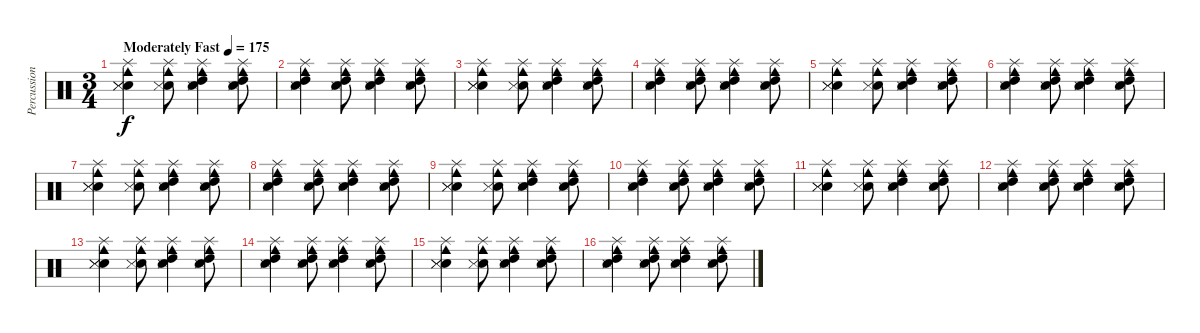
\track ("Percussion" "Percussion") {instrument percussion}
\staff {score}
\articulation defaults
\ts (3 4)
\tempo (175 "Moderately Fast")
\clef neutral
\ks c
("Snare (hit) 2" "Snare (side stick) 3" "Snare (side stick) 3" "Splash (hit)" "Cowbell medium (hit)").4{dy f} ("Snare (hit) 2" "Snare (side stick) 3" "Splash (hit)" "Cowbell medium (hit)").8 ("Snare (hit) 2" "Snare (side stick) 3" "High Tom (hit)" "Splash (hit)" "Cowbell medium (hit)").4 ("Snare (hit) 2" "Snare (side stick) 3" "High Tom (hit)" "Splash (hit)" "Cowbell medium (hit)").8 |
("Snare (hit) 2" "Snare (side stick) 3" "High Tom (hit)" "Splash (hit)" "Cowbell medium (hit)").4 ("Snare (hit) 2" "Snare (side stick) 3" "High Tom (hit)" "Splash (hit)" "Cowbell medium (hit)").8 ("Snare (hit) 2" "Snare (side stick) 3" "High Tom (hit)" "Splash (hit)" "Cowbell medium (hit)").4 ("Snare (hit) 2" "Snare (side stick) 3" "High Tom (hit)" "Splash (hit)" "Cowbell medium (hit)").8 |
("Snare (hit) 2" "Snare (side stick) 3" "Snare (side stick) 3" "Splash (hit)" "Cowbell medium (hit)").4 ("Snare (hit) 2" "Snare (side stick) 3" "Splash (hit)" "Cowbell medium (hit)").8 ("Snare (hit) 2" "Snare (side stick) 3" "High Tom (hit)" "Splash (hit)" "Cowbell medium (hit)").4 ("Snare (hit) 2" "Snare (side stick) 3" "High Tom (hit)" "Splash (hit)" "Cowbell medium (hit)").8 |
("Snare (hit) 2" "Snare (side stick) 3" "High Tom (hit)" "Splash (hit)" "Cowbell medium (hit)").4 ("Snare (hit) 2" "Snare (side stick) 3" "High Tom (hit)" "Splash (hit)" "Cowbell medium (hit)").8 ("Snare (hit) 2" "Snare (side stick) 3" "High Tom (hit)" "Splash (hit)" "Cowbell medium (hit)").4 ("Snare (hit) 2" "Snare (side stick) 3" "High Tom (hit)" "Splash (hit)" "Cowbell medium (hit)").8 |
("Snare (hit) 2" "Snare (side stick) 3" "Snare (side stick) 3" "Splash (hit)" "Cowbell medium (hit)").4 ("Snare (hit) 2" "Snare (side stick) 3" "Splash (hit)" "Cowbell medium (hit)").8 ("Snare (hit) 2" "Snare (side stick) 3" "High Tom (hit)" "Splash (hit)" "Cowbell medium (hit)").4 ("Snare (hit) 2" "Snare (side stick) 3" "High Tom (hit)" "Splash (hit)" "Cowbell medium (hit)").8 |
("Snare (hit) 2" "Snare (side stick) 3" "High Tom (hit)" "Splash (hit)" "Cowbell medium (hit)").4 ("Snare (hit) 2" "Snare (side stick) 3" "High Tom (hit)" "Splash (hit)" "Cowbell medium (hit)").8 ("Snare (hit) 2" "Snare (side stick) 3" "High Tom (hit)" "Splash (hit)" "Cowbell medium (hit)").4 ("Snare (hit) 2" "Snare (side stick) 3" "High Tom (hit)" "Splash (hit)" "Cowbell medium (hit)").8 |
("Snare (hit) 2" "Snare (side stick) 3" "Snare (side stick) 3" "Splash (hit)" "Cowbell medium (hit)").4 ("Snare (hit) 2" "Snare (side stick) 3" "Splash (hit)" "Cowbell medium (hit)").8 ("Snare (hit) 2" "Snare (side stick) 3" "High Tom (hit)" "Splash (hit)" "Cowbell medium (hit)").4 ("Snare (hit) 2" "Snare (side stick) 3" "High Tom (hit)" "Splash (hit)" "Cowbell medium (hit)").8 |
("Snare (hit) 2" "Snare (side stick) 3" "High Tom (hit)" "Splash (hit)" "Cowbell medium (hit)").4 ("Snare (hit) 2" "Snare (side stick) 3" "High Tom (hit)" "Splash (hit)" "Cowbell medium (hit)").8 ("Snare (hit) 2" "Snare (side stick) 3" "High Tom (hit)" "Splash (hit)" "Cowbell medium (hit)").4 ("Snare (hit) 2" "Snare (side stick) 3" "High Tom (hit)" "Splash (hit)" "Cowbell medium (hit)").8 |
("Snare (hit) 2" "Snare (side stick) 3" "Snare (side stick) 3" "Splash (hit)" "Cowbell medium (hit)").4 ("Snare (hit) 2" "Snare (side stick) 3" "Splash (hit)" "Cowbell medium (hit)").8 ("Snare (hit) 2" "Snare (side stick) 3" "High Tom (hit)" "Splash (hit)" "Cowbell medium (hit)").4 ("Snare (hit) 2" "Snare (side stick) 3" "High Tom (hit)" "Splash (hit)" "Cowbell medium (hit)").8 |
("Snare (hit) 2" "Snare (side stick) 3" "High Tom (hit)" "Splash (hit)" "Cowbell medium (hit)").4 ("Snare (hit) 2" "Snare (side stick) 3" "High Tom (hit)" "Splash (hit)" "Cowbell medium (hit)").8 ("Snare (hit) 2" "Snare (side stick) 3" "High Tom (hit)" "Splash (hit)" "Cowbell medium (hit)").4 ("Snare (hit) 2" "Snare (side stick) 3" "High Tom (hit)" "Splash (hit)" "Cowbell medium (hit)").8 |
("Snare (hit) 2" "Snare (side stick) 3" "Snare (side stick) 3" "Splash (hit)" "Cowbell medium (hit)").4 ("Snare (hit) 2" "Snare (side stick) 3" "Splash (hit)" "Cowbell medium (hit)").8 ("Snare (hit) 2" "Snare (side stick) 3" "High Tom (hit)" "Splash (hit)" "Cowbell medium (hit)").4 ("Snare (hit) 2" "Snare (side stick) 3" "High Tom (hit)" "Splash (hit)" "Cowbell medium (hit)").8 |
("Snare (hit) 2" "Snare (side stick) 3" "High Tom (hit)" "Splash (hit)" "Cowbell medium (hit)").4 ("Snare (hit) 2" "Snare (side stick) 3" "High Tom (hit)" "Splash (hit)" "Cowbell medium (hit)").8 ("Snare (hit) 2" "Snare (side stick) 3" "High Tom (hit)" "Splash (hit)" "Cowbell medium (hit)").4 ("Snare (hit) 2" "Snare (side stick) 3" "High Tom (hit)" "Splash (hit)" "Cowbell medium (hit)").8 |
("Snare (hit) 2" "Snare (side stick) 3" "Snare (side stick) 3" "Splash (hit)" "Cowbell medium (hit)").4 ("Snare (hit) 2" "Snare (side stick) 3" "Splash (hit)" "Cowbell medium (hit)").8 ("Snare (hit) 2" "Snare (side stick) 3" "High Tom (hit)" "Splash (hit)" "Cowbell medium (hit)").4 ("Snare (hit) 2" "Snare (side stick) 3" "High Tom (hit)" "Splash (hit)" "Cowbell medium (hit)").8 |
("Snare (hit) 2" "Snare (side stick) 3" "High Tom (hit)" "Splash (hit)" "Cowbell medium (hit)").4 ("Snare (hit) 2" "Snare (side stick) 3" "High Tom (hit)" "Splash (hit)" "Cowbell medium (hit)").8 ("Snare (hit) 2" "Snare (side stick) 3" "High Tom (hit)" "Splash (hit)" "Cowbell medium (hit)").4 ("Snare (hit) 2" "Snare (side stick) 3" "High Tom (hit)" "Splash (hit)" "Cowbell medium (hit)").8 |
("Snare (hit) 2" "Snare (side stick) 3" "Snare (side stick) 3" "Splash (hit)" "Cowbell medium (hit)").4 ("Snare (hit) 2" "Snare (side stick) 3" "Splash (hit)" "Cowbell medium (hit)").8 ("Snare (hit) 2" "Snare (side stick) 3" "High Tom (hit)" "Splash (hit)" "Cowbell medium (hit)").4 ("Snare (hit) 2" "Snare (side stick) 3" "High Tom (hit)" "Splash (hit)" "Cowbell medium (hit)").8 |
("Snare (hit) 2" "Snare (side stick) 3" "High Tom (hit)" "Splash (hit)" "Cowbell medium (hit)").4 ("Snare (hit) 2" "Snare (side stick) 3" "High Tom (hit)" "Splash (hit)" "Cowbell medium (hit)").8 ("Snare (hit) 2" "Snare (side stick) 3" "High Tom (hit)" "Splash (hit)" "Cowbell medium (hit)").4 ("Snare (hit) 2" "Snare (side stick) 3" "High Tom (hit)" "Splash (hit)" "Cowbell medium (hit)").8
